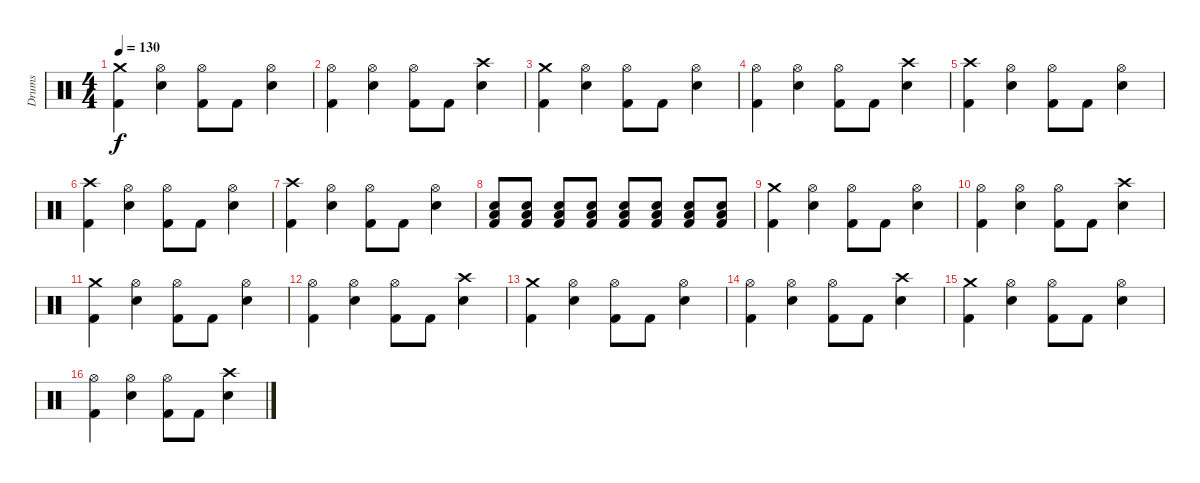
\track ("Drums" "Drums") {instrument percussion}
\staff {score}
\articulation defaults
\ts (4 4)
\tempo 130
\clef neutral
\ks c
("Crash medium (hit)" "Kick (hit) 2").4{dy f} ("Hi-Hat (open)" "Snare (hit) 2").4 ("Hi-Hat (open)" "Kick (hit) 2").8 "Kick (hit) 2".8 ("Hi-Hat (open)" "Snare (hit) 2").4 |
("Hi-Hat (open)" "Kick (hit) 2").4 ("Hi-Hat (open)" "Snare (hit) 2").4 ("Hi-Hat (open)" "Kick (hit) 2").8 "Kick (hit) 2".8 ("Crash high (hit)" "Snare (hit) 2").4 |
("Crash medium (hit)" "Kick (hit) 2").4 ("Hi-Hat (open)" "Snare (hit) 2").4 ("Hi-Hat (open)" "Kick (hit) 2").8 "Kick (hit) 2".8 ("Hi-Hat (open)" "Snare (hit) 2").4 |
("Hi-Hat (open)" "Kick (hit) 2").4 ("Hi-Hat (open)" "Snare (hit) 2").4 ("Hi-Hat (open)" "Kick (hit) 2").8 "Kick (hit) 2".8 ("Crash high (hit)" "Snare (hit) 2").4 |
("Crash high (hit)" "Kick (hit) 2").4 ("Hi-Hat (open)" "Snare (hit) 2").4 ("Hi-Hat (open)" "Kick (hit) 2").8 "Kick (hit) 2".8 ("Hi-Hat (open)" "Snare (hit) 2").4 |
("Crash high (hit)" "Kick (hit) 2").4 ("Hi-Hat (open)" "Snare (hit) 2").4 ("Hi-Hat (open)" "Kick (hit) 2").8 "Kick (hit) 2".8 ("Hi-Hat (open)" "Snare (hit) 2").4 |
("Crash high (hit)" "Kick (hit) 2").4 ("Hi-Hat (open)" "Snare (hit) 2").4 ("Hi-Hat (open)" "Kick (hit) 2").8 "Kick (hit) 2".8 ("Hi-Hat (open)" "Snare (hit) 2").4 |
("Snare (hit) 2" "Low Floor Tom (hit)" "Kick (hit) 2").8 ("Snare (hit) 2" "Low Floor Tom (hit)" "Kick (hit) 2").8 ("Snare (hit) 2" "Low Floor Tom (hit)" "Kick (hit) 2").8 ("Snare (hit) 2" "Low Floor Tom (hit)" "Kick (hit) 2").8 ("Snare (hit) 2" "Low Floor Tom (hit)" "Kick (hit) 2").8 ("Snare (hit) 2" "Low Floor Tom (hit)" "Kick (hit) 2").8 ("Snare (hit) 2" "Low Floor Tom (hit)" "Kick (hit) 2").8 ("Snare (hit) 2" "Low Floor Tom (hit)" "Kick (hit) 2").8 |
("Crash medium (hit)" "Kick (hit) 2").4 ("Hi-Hat (open)" "Snare (hit) 2").4 ("Hi-Hat (open)" "Kick (hit) 2").8 "Kick (hit) 2".8 ("Hi-Hat (open)" "Snare (hit) 2").4 |
("Hi-Hat (open)" "Kick (hit) 2").4 ("Hi-Hat (open)" "Snare (hit) 2").4 ("Hi-Hat (open)" "Kick (hit) 2").8 "Kick (hit) 2".8 ("Crash high (hit)" "Snare (hit) 2").4 |
("Crash medium (hit)" "Kick (hit) 2").4 ("Hi-Hat (open)" "Snare (hit) 2").4 ("Hi-Hat (open)" "Kick (hit) 2").8 "Kick (hit) 2".8 ("Hi-Hat (open)" "Snare (hit) 2").4 |
("Hi-Hat (open)" "Kick (hit) 2").4 ("Hi-Hat (open)" "Snare (hit) 2").4 ("Hi-Hat (open)" "Kick (hit) 2").8 "Kick (hit) 2".8 ("Crash high (hit)" "Snare (hit) 2").4 |
("Crash medium (hit)" "Kick (hit) 2").4 ("Hi-Hat (open)" "Snare (hit) 2").4 ("Hi-Hat (open)" "Kick (hit) 2").8 "Kick (hit) 2".8 ("Hi-Hat (open)" "Snare (hit) 2").4 |
("Hi-Hat (open)" "Kick (hit) 2").4 ("Hi-Hat (open)" "Snare (hit) 2").4 ("Hi-Hat (open)" "Kick (hit) 2").8 "Kick (hit) 2".8 ("Crash high (hit)" "Snare (hit) 2").4 |
("Crash medium (hit)" "Kick (hit) 2").4 ("Hi-Hat (open)" "Snare (hit) 2").4 ("Hi-Hat (open)" "Kick (hit) 2").8 "Kick (hit) 2".8 ("Hi-Hat (open)" "Snare (hit) 2").4 |
("Hi-Hat (open)" "Kick (hit) 2").4 ("Hi-Hat (open)" "Snare (hit) 2").4 ("Hi-Hat (open)" "Kick (hit) 2").8 "Kick (hit) 2".8 ("Crash high (hit)" "Snare (hit) 2").4
